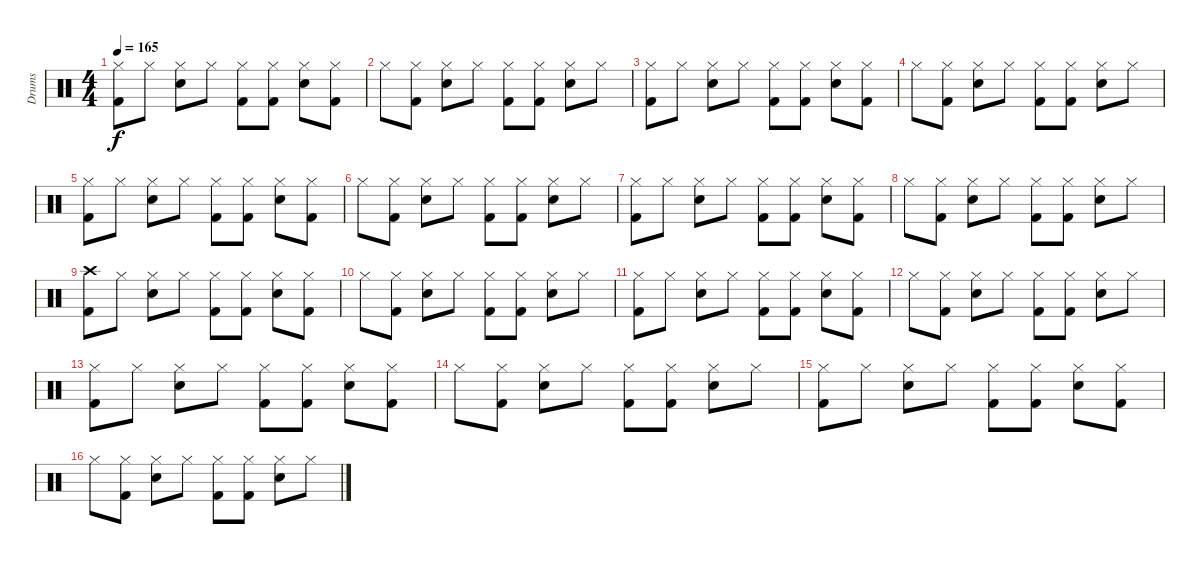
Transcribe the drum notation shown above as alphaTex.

\track ("Drums" "Drums") {instrument percussion}
\staff {score}
\articulation defaults
\ts (4 4)
\tempo 165
\clef neutral
\ks c
("Hi-Hat (closed)" "Kick (hit) 2").8{dy f} "Hi-Hat (closed)".8 ("Hi-Hat (closed)" "Electric Snare (hit)").8 "Hi-Hat (closed)".8 ("Hi-Hat (closed)" "Kick (hit) 2").8 ("Hi-Hat (closed)" "Kick (hit) 2").8 ("Hi-Hat (closed)" "Electric Snare (hit)").8 ("Hi-Hat (closed)" "Kick (hit) 2").8 |
"Hi-Hat (closed)".8 ("Hi-Hat (closed)" "Kick (hit) 2").8 ("Hi-Hat (closed)" "Electric Snare (hit)").8 "Hi-Hat (closed)".8 ("Hi-Hat (closed)" "Kick (hit) 2").8 ("Hi-Hat (closed)" "Kick (hit) 2").8 ("Hi-Hat (closed)" "Electric Snare (hit)").8 "Hi-Hat (closed)".8 |
("Hi-Hat (closed)" "Kick (hit) 2").8 "Hi-Hat (closed)".8 ("Hi-Hat (closed)" "Electric Snare (hit)").8 "Hi-Hat (closed)".8 ("Hi-Hat (closed)" "Kick (hit) 2").8 ("Hi-Hat (closed)" "Kick (hit) 2").8 ("Hi-Hat (closed)" "Electric Snare (hit)").8 ("Hi-Hat (closed)" "Kick (hit) 2").8 |
"Hi-Hat (closed)".8 ("Hi-Hat (closed)" "Kick (hit) 2").8 ("Hi-Hat (closed)" "Electric Snare (hit)").8 "Hi-Hat (closed)".8 ("Hi-Hat (closed)" "Kick (hit) 2").8 ("Hi-Hat (closed)" "Kick (hit) 2").8 ("Hi-Hat (closed)" "Electric Snare (hit)").8 "Hi-Hat (closed)".8 |
("Hi-Hat (closed)" "Kick (hit) 2").8 "Hi-Hat (closed)".8 ("Hi-Hat (closed)" "Electric Snare (hit)").8 "Hi-Hat (closed)".8 ("Hi-Hat (closed)" "Kick (hit) 2").8 ("Hi-Hat (closed)" "Kick (hit) 2").8 ("Hi-Hat (closed)" "Electric Snare (hit)").8 ("Hi-Hat (closed)" "Kick (hit) 2").8 |
"Hi-Hat (closed)".8 ("Hi-Hat (closed)" "Kick (hit) 2").8 ("Hi-Hat (closed)" "Electric Snare (hit)").8 "Hi-Hat (closed)".8 ("Hi-Hat (closed)" "Kick (hit) 2").8 ("Hi-Hat (closed)" "Kick (hit) 2").8 ("Hi-Hat (closed)" "Electric Snare (hit)").8 "Hi-Hat (closed)".8 |
("Hi-Hat (closed)" "Kick (hit) 2").8 "Hi-Hat (closed)".8 ("Hi-Hat (closed)" "Electric Snare (hit)").8 "Hi-Hat (closed)".8 ("Hi-Hat (closed)" "Kick (hit) 2").8 ("Hi-Hat (closed)" "Kick (hit) 2").8 ("Hi-Hat (closed)" "Electric Snare (hit)").8 ("Hi-Hat (closed)" "Kick (hit) 2").8 |
"Hi-Hat (closed)".8 ("Hi-Hat (closed)" "Kick (hit) 2").8 ("Hi-Hat (closed)" "Electric Snare (hit)").8 "Hi-Hat (closed)".8 ("Hi-Hat (closed)" "Kick (hit) 2").8 ("Hi-Hat (closed)" "Kick (hit) 2").8 ("Hi-Hat (closed)" "Electric Snare (hit)").8 "Hi-Hat (closed)".8 |
("Crash high (hit)" "Kick (hit) 2").8 "Hi-Hat (closed)".8 ("Hi-Hat (closed)" "Electric Snare (hit)").8 "Hi-Hat (closed)".8 ("Hi-Hat (closed)" "Kick (hit) 2").8 ("Hi-Hat (closed)" "Kick (hit) 2").8 ("Hi-Hat (closed)" "Electric Snare (hit)").8 ("Hi-Hat (closed)" "Kick (hit) 2").8 |
"Hi-Hat (closed)".8 ("Hi-Hat (closed)" "Kick (hit) 2").8 ("Hi-Hat (closed)" "Electric Snare (hit)").8 "Hi-Hat (closed)".8 ("Hi-Hat (closed)" "Kick (hit) 2").8 ("Hi-Hat (closed)" "Kick (hit) 2").8 ("Hi-Hat (closed)" "Electric Snare (hit)").8 "Hi-Hat (closed)".8 |
("Hi-Hat (closed)" "Kick (hit) 2").8 "Hi-Hat (closed)".8 ("Hi-Hat (closed)" "Electric Snare (hit)").8 "Hi-Hat (closed)".8 ("Hi-Hat (closed)" "Kick (hit) 2").8 ("Hi-Hat (closed)" "Kick (hit) 2").8 ("Hi-Hat (closed)" "Electric Snare (hit)").8 ("Hi-Hat (closed)" "Kick (hit) 2").8 |
"Hi-Hat (closed)".8 ("Hi-Hat (closed)" "Kick (hit) 2").8 ("Hi-Hat (closed)" "Electric Snare (hit)").8 "Hi-Hat (closed)".8 ("Hi-Hat (closed)" "Kick (hit) 2").8 ("Hi-Hat (closed)" "Kick (hit) 2").8 ("Hi-Hat (closed)" "Electric Snare (hit)").8 "Hi-Hat (closed)".8 |
("Hi-Hat (closed)" "Kick (hit) 2").8 "Hi-Hat (closed)".8 ("Hi-Hat (closed)" "Electric Snare (hit)").8 "Hi-Hat (closed)".8 ("Hi-Hat (closed)" "Kick (hit) 2").8 ("Hi-Hat (closed)" "Kick (hit) 2").8 ("Hi-Hat (closed)" "Electric Snare (hit)").8 ("Hi-Hat (closed)" "Kick (hit) 2").8 |
"Hi-Hat (closed)".8 ("Hi-Hat (closed)" "Kick (hit) 2").8 ("Hi-Hat (closed)" "Electric Snare (hit)").8 "Hi-Hat (closed)".8 ("Hi-Hat (closed)" "Kick (hit) 2").8 ("Hi-Hat (closed)" "Kick (hit) 2").8 ("Hi-Hat (closed)" "Electric Snare (hit)").8 "Hi-Hat (closed)".8 |
("Hi-Hat (closed)" "Kick (hit) 2").8 "Hi-Hat (closed)".8 ("Hi-Hat (closed)" "Electric Snare (hit)").8 "Hi-Hat (closed)".8 ("Hi-Hat (closed)" "Kick (hit) 2").8 ("Hi-Hat (closed)" "Kick (hit) 2").8 ("Hi-Hat (closed)" "Electric Snare (hit)").8 ("Hi-Hat (closed)" "Kick (hit) 2").8 |
"Hi-Hat (closed)".8 ("Hi-Hat (closed)" "Kick (hit) 2").8 ("Hi-Hat (closed)" "Electric Snare (hit)").8 "Hi-Hat (closed)".8 ("Hi-Hat (closed)" "Kick (hit) 2").8 ("Hi-Hat (closed)" "Kick (hit) 2").8 ("Hi-Hat (closed)" "Electric Snare (hit)").8 "Hi-Hat (closed)".8
